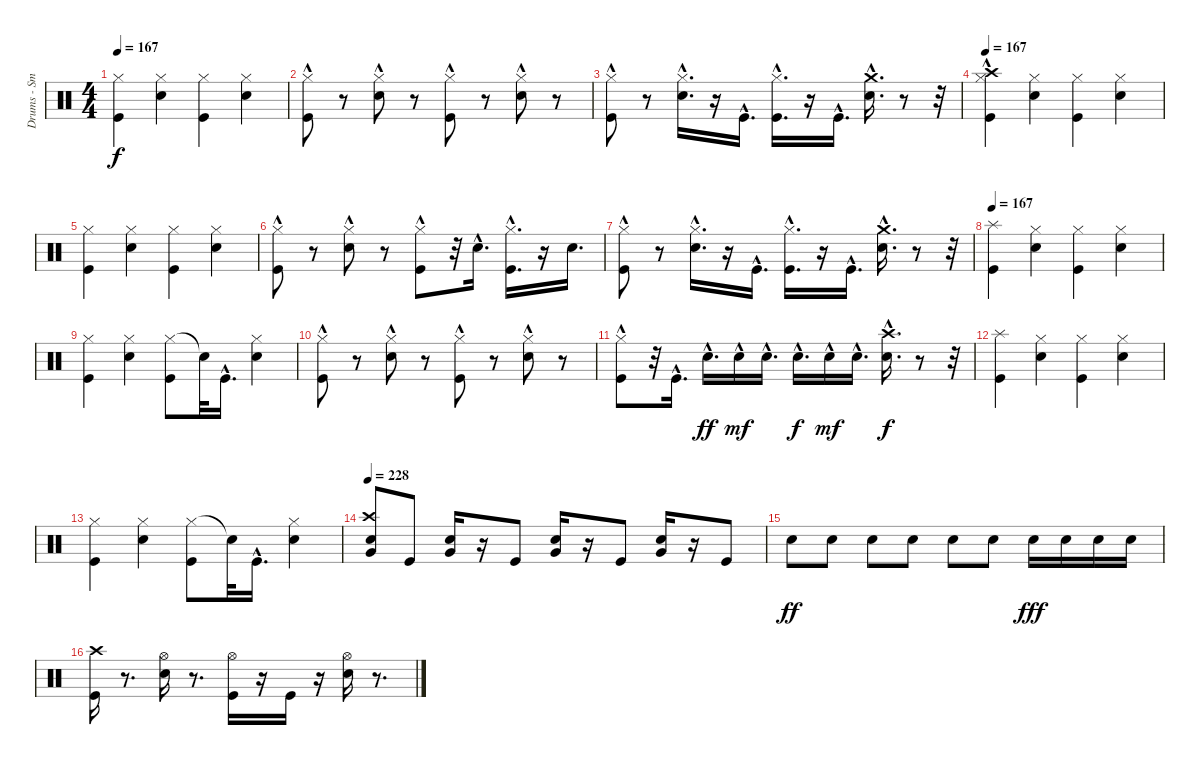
\track ("Drums - Smelly" "Drums - Sm") {instrument percussion}
\staff {score}
\articulation defaults
\ts (4 4)
\tempo 167
\clef neutral
\ks c
("Hi-Hat (closed)" "Kick (hit)").4{dy f} ("Hi-Hat (closed)" "Electric Snare (hit)").4 ("Kick (hit)" "Hi-Hat (closed)").4 ("Hi-Hat (closed)" "Electric Snare (hit)").4 |
("Kick (hit)" "Hi-Hat (closed)"{hac}).8 r.8 ("Hi-Hat (closed)"{hac} "Electric Snare (hit)").8 r.8 ("Hi-Hat (closed)"{hac} "Kick (hit)").8 r.8 ("Electric Snare (hit)" "Hi-Hat (closed)"{hac}).8 r.8 |
("Hi-Hat (closed)"{hac} "Kick (hit)").8 r.8 ("Hi-Hat (closed)"{hac} "Electric Snare (hit)"{hac}).16{d} r.16 "Kick (hit)"{hac}.16{d} ("Kick (hit)"{hac} "Hi-Hat (closed)"{hac}).16{d} r.16 "Kick (hit)"{hac}.16{d} ("Electric Snare (hit)"{hac} "Crash medium (hit)"{hac}).16{d} r.8 r.32 |
\tempo 167
("Hi-Hat (closed)" "Crash high (hit)"{hac} "Kick (hit)").4 ("Electric Snare (hit)" "Hi-Hat (closed)").4 ("Hi-Hat (closed)" "Kick (hit)").4 ("Electric Snare (hit)" "Hi-Hat (closed)").4 |
("Hi-Hat (closed)" "Kick (hit)").4 ("Hi-Hat (closed)" "Electric Snare (hit)").4 ("Kick (hit)" "Hi-Hat (closed)").4 ("Hi-Hat (closed)" "Electric Snare (hit)").4 |
("Hi-Hat (closed)"{hac} "Kick (hit)").8 r.8 ("Electric Snare (hit)" "Hi-Hat (closed)"{hac}).8 r.8 ("Hi-Hat (closed)"{hac} "Kick (hit)").8 r.32 "Electric Snare (hit)"{hac}.16{d} ("Kick (hit)"{hac} "Hi-Hat (closed)"{hac}).16{d} r.16 "Electric Snare (hit)".16{d} |
("Kick (hit)" "Hi-Hat (closed)"{hac}).8 r.8 ("Electric Snare (hit)"{hac} "Hi-Hat (closed)"{hac}).16{d} r.16 "Kick (hit)"{hac}.16{d} ("Kick (hit)"{hac} "Hi-Hat (closed)"{hac}).16{d} r.16 "Kick (hit)"{hac}.16{d} ("Electric Snare (hit)"{hac} "Crash medium (hit)"{hac}).16{d} r.8 r.32 |
\tempo 167
("Splash (hit)" "Kick (hit)").4 ("Electric Snare (hit)" "Hi-Hat (closed)").4 ("Hi-Hat (closed)" "Kick (hit)").4 ("Hi-Hat (closed)" "Electric Snare (hit)").4 |
("Kick (hit)" "Hi-Hat (closed)").4 ("Hi-Hat (closed)" "Electric Snare (hit)").4 ("Hi-Hat (closed)" "Kick (hit)").8 "Snare (hit)"{t}.32 "Kick (hit)"{hac}.16{d} ("Hi-Hat (closed)" "Electric Snare (hit)").4 |
("Kick (hit)" "Hi-Hat (closed)"{hac}).8 r.8 ("Hi-Hat (closed)"{hac} "Electric Snare (hit)").8 r.8 ("Kick (hit)" "Hi-Hat (closed)"{hac}).8 r.8 ("Hi-Hat (closed)"{hac} "Electric Snare (hit)").8 r.8 |
("Hi-Hat (closed)"{hac} "Kick (hit)").8 r.32 "Kick (hit)"{hac}.16{d} "Electric Snare (hit)"{hac}.16{d dy ff} "Electric Snare (hit)"{hac}.16{dy mf} "Electric Snare (hit)"{hac}.16{d} "Electric Snare (hit)"{hac}.16{d dy f} "Electric Snare (hit)"{hac}.16{dy mf} "Electric Snare (hit)"{hac}.16{d} ("Crash high (hit)"{hac} "Electric Snare (hit)"{hac}).16{d dy f} r.8 r.32 |
("Kick (hit)" "Splash (hit)").4 ("Hi-Hat (closed)" "Electric Snare (hit)").4 ("Hi-Hat (closed)" "Kick (hit)").4 ("Electric Snare (hit)" "Hi-Hat (closed)").4 |
("Hi-Hat (closed)" "Kick (hit)").4 ("Electric Snare (hit)" "Hi-Hat (closed)").4 ("Hi-Hat (closed)" "Kick (hit)").8 "Snare (hit)"{t}.32 "Kick (hit)"{hac}.16{d} ("Hi-Hat (closed)" "Electric Snare (hit)").4 |
\tempo 228
("Electric Snare (hit)" "Very Low Tom (hit)" "Crash high (hit)").8 "Kick (hit)".8 ("Electric Snare (hit)" "Very Low Tom (hit)").16 r.16 "Kick (hit)".8 ("Electric Snare (hit)" "Very Low Tom (hit)").16 r.16 "Kick (hit)".8 ("Electric Snare (hit)" "Very Low Tom (hit)").16 r.16 "Kick (hit)".8 |
"Electric Snare (hit)".8{dy ff} "Electric Snare (hit)".8 "Electric Snare (hit)".8 "Electric Snare (hit)".8 "Electric Snare (hit)".8 "Electric Snare (hit)".8 "Electric Snare (hit)".16{dy fff} "Electric Snare (hit)".16 "Electric Snare (hit)".16 "Electric Snare (hit)".16 |
("Crash high (hit)" "Kick (hit)").16 r.8{d} ("Hi-Hat (open)" "Electric Snare (hit)").16 r.8{d} ("Kick (hit)" "Hi-Hat (open)").16 r.16 "Kick (hit)".16 r.16 ("Electric Snare (hit)" "Hi-Hat (open)").16 r.8{d}
